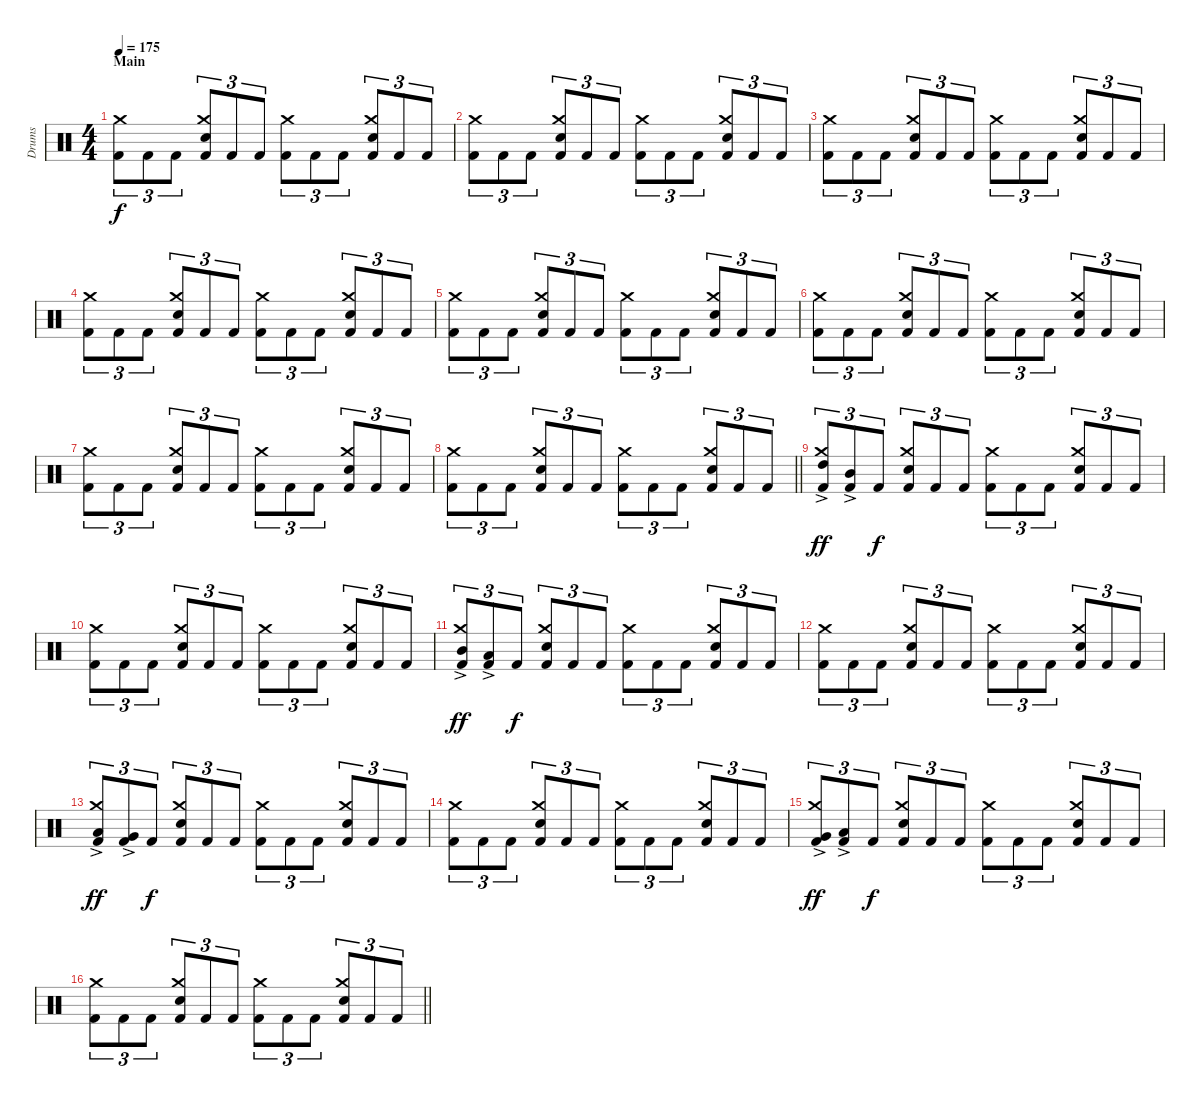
\track ("Drums" "Drums") {instrument percussion}
\staff {score}
\articulation defaults
\ts (4 4)
\section ("" "Main")
\tempo 175
\clef neutral
\ks c
("Kick (hit) 2" "Crash medium (hit)").8{tu (3 2) dy f} "Kick (hit) 2".8{tu (3 2)} "Kick (hit) 2".8{tu (3 2)} ("Kick (hit) 2" "Snare (hit) 2" "Crash medium (hit)").8{tu (3 2)} "Kick (hit) 2".8{tu (3 2)} "Kick (hit) 2".8{tu (3 2)} ("Kick (hit) 2" "Crash medium (hit)").8{tu (3 2)} "Kick (hit) 2".8{tu (3 2)} "Kick (hit) 2".8{tu (3 2)} ("Kick (hit) 2" "Snare (hit) 2" "Crash medium (hit)").8{tu (3 2)} "Kick (hit) 2".8{tu (3 2)} "Kick (hit) 2".8{tu (3 2)} |
("Kick (hit) 2" "Crash medium (hit)").8{tu (3 2)} "Kick (hit) 2".8{tu (3 2)} "Kick (hit) 2".8{tu (3 2)} ("Kick (hit) 2" "Snare (hit) 2" "Crash medium (hit)").8{tu (3 2)} "Kick (hit) 2".8{tu (3 2)} "Kick (hit) 2".8{tu (3 2)} ("Kick (hit) 2" "Crash medium (hit)").8{tu (3 2)} "Kick (hit) 2".8{tu (3 2)} "Kick (hit) 2".8{tu (3 2)} ("Kick (hit) 2" "Snare (hit) 2" "Crash medium (hit)").8{tu (3 2)} "Kick (hit) 2".8{tu (3 2)} "Kick (hit) 2".8{tu (3 2)} |
("Kick (hit) 2" "Crash medium (hit)").8{tu (3 2)} "Kick (hit) 2".8{tu (3 2)} "Kick (hit) 2".8{tu (3 2)} ("Kick (hit) 2" "Snare (hit) 2" "Crash medium (hit)").8{tu (3 2)} "Kick (hit) 2".8{tu (3 2)} "Kick (hit) 2".8{tu (3 2)} ("Kick (hit) 2" "Crash medium (hit)").8{tu (3 2)} "Kick (hit) 2".8{tu (3 2)} "Kick (hit) 2".8{tu (3 2)} ("Kick (hit) 2" "Snare (hit) 2" "Crash medium (hit)").8{tu (3 2)} "Kick (hit) 2".8{tu (3 2)} "Kick (hit) 2".8{tu (3 2)} |
("Kick (hit) 2" "Crash medium (hit)").8{tu (3 2)} "Kick (hit) 2".8{tu (3 2)} "Kick (hit) 2".8{tu (3 2)} ("Kick (hit) 2" "Snare (hit) 2" "Crash medium (hit)").8{tu (3 2)} "Kick (hit) 2".8{tu (3 2)} "Kick (hit) 2".8{tu (3 2)} ("Kick (hit) 2" "Crash medium (hit)").8{tu (3 2)} "Kick (hit) 2".8{tu (3 2)} "Kick (hit) 2".8{tu (3 2)} ("Kick (hit) 2" "Snare (hit) 2" "Crash medium (hit)").8{tu (3 2)} "Kick (hit) 2".8{tu (3 2)} "Kick (hit) 2".8{tu (3 2)} |
("Kick (hit) 2" "Crash medium (hit)").8{tu (3 2)} "Kick (hit) 2".8{tu (3 2)} "Kick (hit) 2".8{tu (3 2)} ("Kick (hit) 2" "Snare (hit) 2" "Crash medium (hit)").8{tu (3 2)} "Kick (hit) 2".8{tu (3 2)} "Kick (hit) 2".8{tu (3 2)} ("Kick (hit) 2" "Crash medium (hit)").8{tu (3 2)} "Kick (hit) 2".8{tu (3 2)} "Kick (hit) 2".8{tu (3 2)} ("Kick (hit) 2" "Snare (hit) 2" "Crash medium (hit)").8{tu (3 2)} "Kick (hit) 2".8{tu (3 2)} "Kick (hit) 2".8{tu (3 2)} |
("Kick (hit) 2" "Crash medium (hit)").8{tu (3 2)} "Kick (hit) 2".8{tu (3 2)} "Kick (hit) 2".8{tu (3 2)} ("Kick (hit) 2" "Snare (hit) 2" "Crash medium (hit)").8{tu (3 2)} "Kick (hit) 2".8{tu (3 2)} "Kick (hit) 2".8{tu (3 2)} ("Kick (hit) 2" "Crash medium (hit)").8{tu (3 2)} "Kick (hit) 2".8{tu (3 2)} "Kick (hit) 2".8{tu (3 2)} ("Kick (hit) 2" "Snare (hit) 2" "Crash medium (hit)").8{tu (3 2)} "Kick (hit) 2".8{tu (3 2)} "Kick (hit) 2".8{tu (3 2)} |
("Kick (hit) 2" "Crash medium (hit)").8{tu (3 2)} "Kick (hit) 2".8{tu (3 2)} "Kick (hit) 2".8{tu (3 2)} ("Kick (hit) 2" "Snare (hit) 2" "Crash medium (hit)").8{tu (3 2)} "Kick (hit) 2".8{tu (3 2)} "Kick (hit) 2".8{tu (3 2)} ("Kick (hit) 2" "Crash medium (hit)").8{tu (3 2)} "Kick (hit) 2".8{tu (3 2)} "Kick (hit) 2".8{tu (3 2)} ("Kick (hit) 2" "Snare (hit) 2" "Crash medium (hit)").8{tu (3 2)} "Kick (hit) 2".8{tu (3 2)} "Kick (hit) 2".8{tu (3 2)} |
\barLineRight lightlight
("Kick (hit) 2" "Crash medium (hit)").8{tu (3 2)} "Kick (hit) 2".8{tu (3 2)} "Kick (hit) 2".8{tu (3 2)} ("Kick (hit) 2" "Snare (hit) 2" "Crash medium (hit)").8{tu (3 2)} "Kick (hit) 2".8{tu (3 2)} "Kick (hit) 2".8{tu (3 2)} ("Kick (hit) 2" "Crash medium (hit)").8{tu (3 2)} "Kick (hit) 2".8{tu (3 2)} "Kick (hit) 2".8{tu (3 2)} ("Kick (hit) 2" "Snare (hit) 2" "Crash medium (hit)").8{tu (3 2)} "Kick (hit) 2".8{tu (3 2)} "Kick (hit) 2".8{tu (3 2)} |
\section ("" "")
("Kick (hit) 2" "High Tom (hit)"{ac} "Crash medium (hit)").8{tu (3 2) dy ff} ("Kick (hit) 2" "Mid Tom (hit)"{ac}).8{tu (3 2)} "Kick (hit) 2".8{tu (3 2) dy f} ("Kick (hit) 2" "Snare (hit) 2" "Crash medium (hit)").8{tu (3 2)} "Kick (hit) 2".8{tu (3 2)} "Kick (hit) 2".8{tu (3 2)} ("Kick (hit) 2" "Crash medium (hit)").8{tu (3 2)} "Kick (hit) 2".8{tu (3 2)} "Kick (hit) 2".8{tu (3 2)} ("Kick (hit) 2" "Snare (hit) 2" "Crash medium (hit)").8{tu (3 2)} "Kick (hit) 2".8{tu (3 2)} "Kick (hit) 2".8{tu (3 2)} |
("Kick (hit) 2" "Crash medium (hit)").8{tu (3 2)} "Kick (hit) 2".8{tu (3 2)} "Kick (hit) 2".8{tu (3 2)} ("Kick (hit) 2" "Snare (hit) 2" "Crash medium (hit)").8{tu (3 2)} "Kick (hit) 2".8{tu (3 2)} "Kick (hit) 2".8{tu (3 2)} ("Kick (hit) 2" "Crash medium (hit)").8{tu (3 2)} "Kick (hit) 2".8{tu (3 2)} "Kick (hit) 2".8{tu (3 2)} ("Kick (hit) 2" "Snare (hit) 2" "Crash medium (hit)").8{tu (3 2)} "Kick (hit) 2".8{tu (3 2)} "Kick (hit) 2".8{tu (3 2)} |
("Kick (hit) 2" "Mid Tom (hit)"{ac} "Crash medium (hit)").8{tu (3 2) dy ff} ("Kick (hit) 2" "Low Tom (hit)"{ac}).8{tu (3 2)} "Kick (hit) 2".8{tu (3 2) dy f} ("Kick (hit) 2" "Snare (hit) 2" "Crash medium (hit)").8{tu (3 2)} "Kick (hit) 2".8{tu (3 2)} "Kick (hit) 2".8{tu (3 2)} ("Kick (hit) 2" "Crash medium (hit)").8{tu (3 2)} "Kick (hit) 2".8{tu (3 2)} "Kick (hit) 2".8{tu (3 2)} ("Kick (hit) 2" "Snare (hit) 2" "Crash medium (hit)").8{tu (3 2)} "Kick (hit) 2".8{tu (3 2)} "Kick (hit) 2".8{tu (3 2)} |
("Kick (hit) 2" "Crash medium (hit)").8{tu (3 2)} "Kick (hit) 2".8{tu (3 2)} "Kick (hit) 2".8{tu (3 2)} ("Kick (hit) 2" "Snare (hit) 2" "Crash medium (hit)").8{tu (3 2)} "Kick (hit) 2".8{tu (3 2)} "Kick (hit) 2".8{tu (3 2)} ("Kick (hit) 2" "Crash medium (hit)").8{tu (3 2)} "Kick (hit) 2".8{tu (3 2)} "Kick (hit) 2".8{tu (3 2)} ("Kick (hit) 2" "Snare (hit) 2" "Crash medium (hit)").8{tu (3 2)} "Kick (hit) 2".8{tu (3 2)} "Kick (hit) 2".8{tu (3 2)} |
("Kick (hit) 2" "Low Tom (hit)"{ac} "Crash medium (hit)").8{tu (3 2) dy ff} ("Kick (hit) 2" "Very Low Tom (hit)"{ac}).8{tu (3 2)} "Kick (hit) 2".8{tu (3 2) dy f} ("Kick (hit) 2" "Snare (hit) 2" "Crash medium (hit)").8{tu (3 2)} "Kick (hit) 2".8{tu (3 2)} "Kick (hit) 2".8{tu (3 2)} ("Kick (hit) 2" "Crash medium (hit)").8{tu (3 2)} "Kick (hit) 2".8{tu (3 2)} "Kick (hit) 2".8{tu (3 2)} ("Kick (hit) 2" "Snare (hit) 2" "Crash medium (hit)").8{tu (3 2)} "Kick (hit) 2".8{tu (3 2)} "Kick (hit) 2".8{tu (3 2)} |
("Kick (hit) 2" "Crash medium (hit)").8{tu (3 2)} "Kick (hit) 2".8{tu (3 2)} "Kick (hit) 2".8{tu (3 2)} ("Kick (hit) 2" "Snare (hit) 2" "Crash medium (hit)").8{tu (3 2)} "Kick (hit) 2".8{tu (3 2)} "Kick (hit) 2".8{tu (3 2)} ("Kick (hit) 2" "Crash medium (hit)").8{tu (3 2)} "Kick (hit) 2".8{tu (3 2)} "Kick (hit) 2".8{tu (3 2)} ("Kick (hit) 2" "Snare (hit) 2" "Crash medium (hit)").8{tu (3 2)} "Kick (hit) 2".8{tu (3 2)} "Kick (hit) 2".8{tu (3 2)} |
("Kick (hit) 2" "Very Low Tom (hit)"{ac} "Crash medium (hit)").8{tu (3 2) dy ff} ("Kick (hit) 2" "Low Floor Tom (hit)"{ac}).8{tu (3 2)} "Kick (hit) 2".8{tu (3 2) dy f} ("Kick (hit) 2" "Snare (hit) 2" "Crash medium (hit)").8{tu (3 2)} "Kick (hit) 2".8{tu (3 2)} "Kick (hit) 2".8{tu (3 2)} ("Kick (hit) 2" "Crash medium (hit)").8{tu (3 2)} "Kick (hit) 2".8{tu (3 2)} "Kick (hit) 2".8{tu (3 2)} ("Kick (hit) 2" "Snare (hit) 2" "Crash medium (hit)").8{tu (3 2)} "Kick (hit) 2".8{tu (3 2)} "Kick (hit) 2".8{tu (3 2)} |
\barLineRight lightlight
("Kick (hit) 2" "Crash medium (hit)").8{tu (3 2)} "Kick (hit) 2".8{tu (3 2)} "Kick (hit) 2".8{tu (3 2)} ("Kick (hit) 2" "Snare (hit) 2" "Crash medium (hit)").8{tu (3 2)} "Kick (hit) 2".8{tu (3 2)} "Kick (hit) 2".8{tu (3 2)} ("Kick (hit) 2" "Crash medium (hit)").8{tu (3 2)} "Kick (hit) 2".8{tu (3 2)} "Kick (hit) 2".8{tu (3 2)} ("Kick (hit) 2" "Snare (hit) 2" "Crash medium (hit)").8{tu (3 2)} "Kick (hit) 2".8{tu (3 2)} "Kick (hit) 2".8{tu (3 2)}
